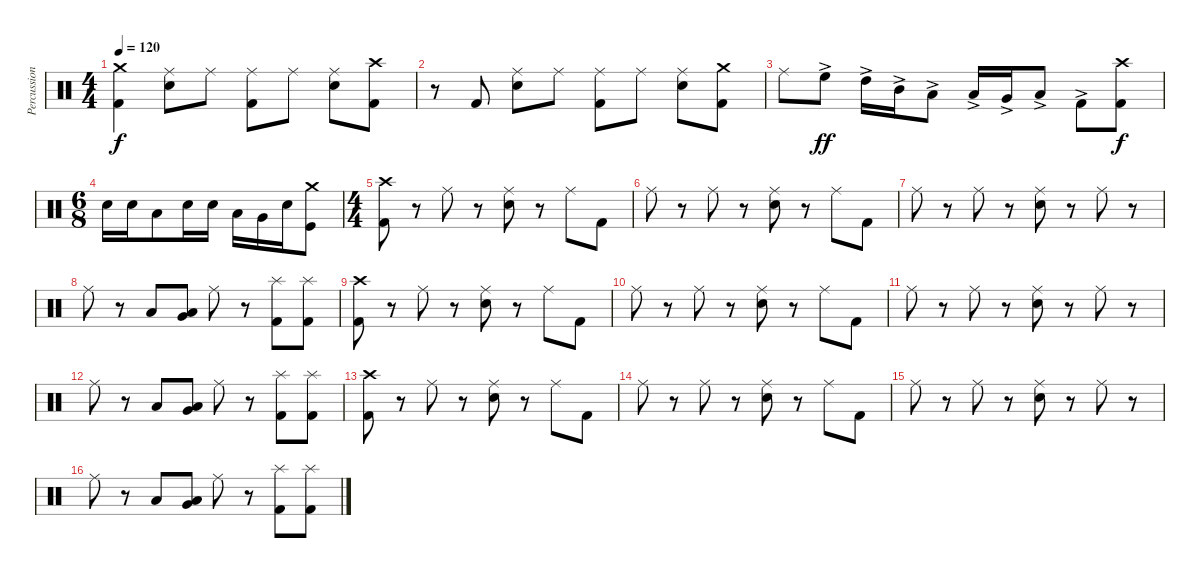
\track ("Percussion" "Percussion") {instrument percussion}
\staff {score}
\articulation defaults
\ts (4 4)
\tempo 120
\clef neutral
\ks c
("Kick (hit) 2" "Crash medium (hit)").4{dy f} ("Electric Snare (hit)" "Ride (middle)").8 "Ride (middle)".8 ("Kick (hit) 2" "Ride (middle)").8 "Ride (middle)".8 ("Electric Snare (hit)" "Ride (middle)").8 ("Kick (hit) 2" "Crash high (hit)").8 |
r.8 "Kick (hit) 2".8 ("Electric Snare (hit)" "Ride (middle)").8 "Ride (middle)".8 ("Kick (hit) 2" "Ride (middle)").8 "Ride (middle)".8 ("Electric Snare (hit)" "Ride (middle)").8 ("Kick (hit) 2" "Crash medium (hit)").8 |
"Ride (middle)".8 "High Floor Tom (hit)"{ac}.8{dy ff} "High Tom (hit)"{ac}.16 "Mid Tom (hit)"{ac}.16 "Low Tom (hit)"{ac}.8 "Low Tom (hit)"{ac}.16 "Very Low Tom (hit)"{ac}.16 "Low Floor Tom (hit)"{ac}.8 "Kick (hit) 2"{ac}.8 ("Crash high (hit)" "Kick (hit) 2").8{dy f} |
\ts (6 8)
"Electric Snare (hit)".16 "Electric Snare (hit)".16 "Low Floor Tom (hit)".8 "Electric Snare (hit)".16 "Electric Snare (hit)".16 "Low Tom (hit)".16 "Very Low Tom (hit)".16 "Electric Snare (hit)".16 ("Crash medium (hit)" "Kick (hit)").8 |
\ts (4 4)
("Kick (hit) 2" "Crash high (hit)").8 r.8 "Ride (middle)".8 r.8 ("Electric Snare (hit)" "Ride (middle)").8 r.8 "Ride (middle)".8 "Kick (hit) 2".8 |
"Ride (middle)".8 r.8 "Ride (middle)".8 r.8 ("Electric Snare (hit)" "Ride (middle)").8 r.8 "Ride (middle)".8 "Kick (hit) 2".8 |
"Ride (middle)".8 r.8 "Ride (middle)".8 r.8 ("Electric Snare (hit)" "Ride (middle)").8 r.8 "Ride (middle)".8 r.8 |
"Ride (middle)".8 r.8 "Low Tom (hit)".8 ("Very Low Tom (hit)" "Low Floor Tom (hit)").8 "Ride (middle)".8 r.8 ("Splash (hit)" "Kick (hit) 2").8 ("Splash (hit)" "Kick (hit) 2").8 |
("Kick (hit) 2" "Crash high (hit)").8 r.8 "Ride (middle)".8 r.8 ("Electric Snare (hit)" "Ride (middle)").8 r.8 "Ride (middle)".8 "Kick (hit) 2".8 |
"Ride (middle)".8 r.8 "Ride (middle)".8 r.8 ("Electric Snare (hit)" "Ride (middle)").8 r.8 "Ride (middle)".8 "Kick (hit) 2".8 |
"Ride (middle)".8 r.8 "Ride (middle)".8 r.8 ("Electric Snare (hit)" "Ride (middle)").8 r.8 "Ride (middle)".8 r.8 |
"Ride (middle)".8 r.8 "Low Tom (hit)".8 ("Very Low Tom (hit)" "Low Floor Tom (hit)").8 "Ride (middle)".8 r.8 ("Splash (hit)" "Kick (hit) 2").8 ("Splash (hit)" "Kick (hit) 2").8 |
("Kick (hit) 2" "Crash high (hit)").8 r.8 "Ride (middle)".8 r.8 ("Electric Snare (hit)" "Ride (middle)").8 r.8 "Ride (middle)".8 "Kick (hit) 2".8 |
"Ride (middle)".8 r.8 "Ride (middle)".8 r.8 ("Electric Snare (hit)" "Ride (middle)").8 r.8 "Ride (middle)".8 "Kick (hit) 2".8 |
"Ride (middle)".8 r.8 "Ride (middle)".8 r.8 ("Electric Snare (hit)" "Ride (middle)").8 r.8 "Ride (middle)".8 r.8 |
"Ride (middle)".8 r.8 "Low Tom (hit)".8 ("Very Low Tom (hit)" "Low Floor Tom (hit)").8 "Ride (middle)".8 r.8 ("Splash (hit)" "Kick (hit) 2").8 ("Splash (hit)" "Kick (hit) 2").8
